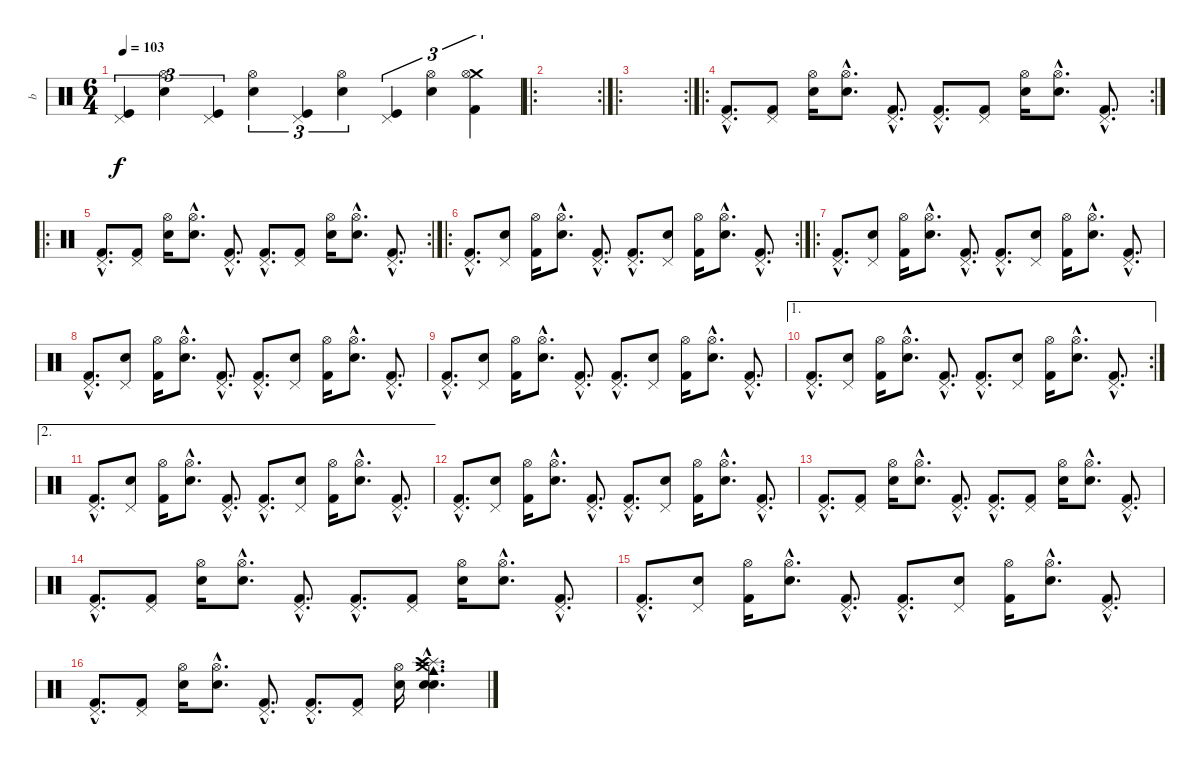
\track ("b" "b") {instrument percussion}
\staff {score}
\articulation defaults
\ts (6 4)
\tempo 103
\clef neutral
\ks c
("Pedal Hi-Hat (hit)" "Kick (hit)").4{tu (3 2) dy f} ("Hi-Hat (open)" "Electric Snare (hit)").4{tu (3 2)} ("Pedal Hi-Hat (hit)" "Kick (hit)").4{tu (3 2)} ("Hi-Hat (open)" "Electric Snare (hit)").4{tu (3 2)} ("Pedal Hi-Hat (hit)" "Kick (hit)").4{tu (3 2)} ("Hi-Hat (open)" "Electric Snare (hit)").4{tu (3 2)} ("Pedal Hi-Hat (hit)" "Kick (hit)").4{tu (3 2)} ("Hi-Hat (open)" "Electric Snare (hit)").4{tu (3 2)} ("Crash medium (hit)" "Hi-Hat (open)" "Kick (hit) 2").4{tu (3 2)} |
\ro
\rc 2
|
\ro
\rc 2
|
\ro
\rc 2
("Pedal Hi-Hat (hit)"{hac} "Kick (hit) 2"{hac}).8{d} ("Pedal Hi-Hat (hit)" "Kick (hit) 2").8 ("Hi-Hat (open)" "Electric Snare (hit)").16 ("Hi-Hat (open)"{hac} "Electric Snare (hit)"{hac}).8{d} ("Pedal Hi-Hat (hit)"{hac} "Kick (hit) 2"{hac}).8{d} ("Pedal Hi-Hat (hit)"{hac} "Kick (hit) 2"{hac}).8{d} ("Pedal Hi-Hat (hit)" "Kick (hit) 2").8 ("Hi-Hat (open)" "Electric Snare (hit)").16 ("Hi-Hat (open)"{hac} "Electric Snare (hit)"{hac}).8{d} ("Pedal Hi-Hat (hit)"{hac} "Kick (hit) 2"{hac}).8{d} |
\ro
\rc 2
("Pedal Hi-Hat (hit)"{hac} "Kick (hit) 2"{hac}).8{d} ("Pedal Hi-Hat (hit)" "Kick (hit) 2").8 ("Hi-Hat (open)" "Electric Snare (hit)").16 ("Hi-Hat (open)"{hac} "Electric Snare (hit)"{hac}).8{d} ("Pedal Hi-Hat (hit)"{hac} "Kick (hit) 2"{hac}).8{d} ("Pedal Hi-Hat (hit)"{hac} "Kick (hit) 2"{hac}).8{d} ("Pedal Hi-Hat (hit)" "Kick (hit) 2").8 ("Hi-Hat (open)" "Electric Snare (hit)").16 ("Hi-Hat (open)"{hac} "Electric Snare (hit)"{hac}).8{d} ("Pedal Hi-Hat (hit)"{hac} "Kick (hit) 2"{hac}).8{d} |
\ro
\rc 2
("Pedal Hi-Hat (hit)"{hac} "Kick (hit) 2"{hac}).8{d} ("Pedal Hi-Hat (hit)" "Electric Snare (hit)").8 ("Hi-Hat (open)" "Kick (hit) 2").16 ("Hi-Hat (open)"{hac} "Electric Snare (hit)"{hac}).8{d} ("Pedal Hi-Hat (hit)"{hac} "Kick (hit) 2"{hac}).8{d} ("Pedal Hi-Hat (hit)"{hac} "Kick (hit) 2"{hac}).8{d} ("Pedal Hi-Hat (hit)" "Electric Snare (hit)").8 ("Hi-Hat (open)" "Kick (hit) 2").16 ("Hi-Hat (open)"{hac} "Electric Snare (hit)"{hac}).8{d} ("Pedal Hi-Hat (hit)"{hac} "Kick (hit) 2"{hac}).8{d} |
\ro
("Pedal Hi-Hat (hit)"{hac} "Kick (hit) 2"{hac}).8{d} ("Pedal Hi-Hat (hit)" "Electric Snare (hit)").8 ("Hi-Hat (open)" "Kick (hit) 2").16 ("Hi-Hat (open)"{hac} "Electric Snare (hit)"{hac}).8{d} ("Pedal Hi-Hat (hit)"{hac} "Kick (hit) 2"{hac}).8{d} ("Pedal Hi-Hat (hit)"{hac} "Kick (hit) 2"{hac}).8{d} ("Pedal Hi-Hat (hit)" "Electric Snare (hit)").8 ("Hi-Hat (open)" "Kick (hit) 2").16 ("Hi-Hat (open)"{hac} "Electric Snare (hit)"{hac}).8{d} ("Pedal Hi-Hat (hit)"{hac} "Kick (hit) 2"{hac}).8{d} |
("Pedal Hi-Hat (hit)"{hac} "Kick (hit) 2"{hac}).8{d} ("Pedal Hi-Hat (hit)" "Electric Snare (hit)").8 ("Hi-Hat (open)" "Kick (hit) 2").16 ("Hi-Hat (open)"{hac} "Electric Snare (hit)"{hac}).8{d} ("Pedal Hi-Hat (hit)"{hac} "Kick (hit) 2"{hac}).8{d} ("Pedal Hi-Hat (hit)"{hac} "Kick (hit) 2"{hac}).8{d} ("Pedal Hi-Hat (hit)" "Electric Snare (hit)").8 ("Hi-Hat (open)" "Kick (hit) 2").16 ("Hi-Hat (open)"{hac} "Electric Snare (hit)"{hac}).8{d} ("Pedal Hi-Hat (hit)"{hac} "Kick (hit) 2"{hac}).8{d} |
("Pedal Hi-Hat (hit)"{hac} "Kick (hit) 2"{hac}).8{d} ("Pedal Hi-Hat (hit)" "Electric Snare (hit)").8 ("Hi-Hat (open)" "Kick (hit) 2").16 ("Hi-Hat (open)"{hac} "Electric Snare (hit)"{hac}).8{d} ("Pedal Hi-Hat (hit)"{hac} "Kick (hit) 2"{hac}).8{d} ("Pedal Hi-Hat (hit)"{hac} "Kick (hit) 2"{hac}).8{d} ("Pedal Hi-Hat (hit)" "Electric Snare (hit)").8 ("Hi-Hat (open)" "Kick (hit) 2").16 ("Hi-Hat (open)"{hac} "Electric Snare (hit)"{hac}).8{d} ("Pedal Hi-Hat (hit)"{hac} "Kick (hit) 2"{hac}).8{d} |
\ae 1
\rc 2
("Pedal Hi-Hat (hit)"{hac} "Kick (hit) 2"{hac}).8{d} ("Pedal Hi-Hat (hit)" "Electric Snare (hit)").8 ("Hi-Hat (open)" "Kick (hit) 2").16 ("Hi-Hat (open)"{hac} "Electric Snare (hit)"{hac}).8{d} ("Pedal Hi-Hat (hit)"{hac} "Kick (hit) 2"{hac}).8{d} ("Pedal Hi-Hat (hit)"{hac} "Kick (hit) 2"{hac}).8{d} ("Pedal Hi-Hat (hit)" "Electric Snare (hit)").8 ("Hi-Hat (open)" "Kick (hit) 2").16 ("Hi-Hat (open)"{hac} "Electric Snare (hit)"{hac}).8{d} ("Pedal Hi-Hat (hit)"{hac} "Kick (hit) 2"{hac}).8{d} |
\ae 2
("Pedal Hi-Hat (hit)"{hac} "Kick (hit) 2"{hac}).8{d} ("Pedal Hi-Hat (hit)" "Electric Snare (hit)").8 ("Hi-Hat (open)" "Kick (hit) 2").16 ("Hi-Hat (open)"{hac} "Electric Snare (hit)"{hac}).8{d} ("Pedal Hi-Hat (hit)"{hac} "Kick (hit) 2"{hac}).8{d} ("Pedal Hi-Hat (hit)"{hac} "Kick (hit) 2"{hac}).8{d} ("Pedal Hi-Hat (hit)" "Electric Snare (hit)").8 ("Hi-Hat (open)" "Kick (hit) 2").16 ("Hi-Hat (open)"{hac} "Electric Snare (hit)"{hac}).8{d} ("Pedal Hi-Hat (hit)"{hac} "Kick (hit) 2"{hac}).8{d} |
("Pedal Hi-Hat (hit)"{hac} "Kick (hit) 2"{hac}).8{d} ("Pedal Hi-Hat (hit)" "Electric Snare (hit)").8 ("Hi-Hat (open)" "Kick (hit) 2").16 ("Hi-Hat (open)"{hac} "Electric Snare (hit)"{hac}).8{d} ("Pedal Hi-Hat (hit)"{hac} "Kick (hit) 2"{hac}).8{d} ("Pedal Hi-Hat (hit)"{hac} "Kick (hit) 2"{hac}).8{d} ("Pedal Hi-Hat (hit)" "Electric Snare (hit)").8 ("Hi-Hat (open)" "Kick (hit) 2").16 ("Hi-Hat (open)"{hac} "Electric Snare (hit)"{hac}).8{d} ("Pedal Hi-Hat (hit)"{hac} "Kick (hit) 2"{hac}).8{d} |
("Pedal Hi-Hat (hit)"{hac} "Kick (hit) 2"{hac}).8{d} ("Pedal Hi-Hat (hit)" "Kick (hit) 2").8 ("Hi-Hat (open)" "Electric Snare (hit)").16 ("Hi-Hat (open)"{hac} "Electric Snare (hit)"{hac}).8{d} ("Pedal Hi-Hat (hit)"{hac} "Kick (hit) 2"{hac}).8{d} ("Pedal Hi-Hat (hit)"{hac} "Kick (hit) 2"{hac}).8{d} ("Pedal Hi-Hat (hit)" "Kick (hit) 2").8 ("Hi-Hat (open)" "Electric Snare (hit)").16 ("Hi-Hat (open)"{hac} "Electric Snare (hit)"{hac}).8{d} ("Pedal Hi-Hat (hit)"{hac} "Kick (hit) 2"{hac}).8{d} |
("Pedal Hi-Hat (hit)"{hac} "Kick (hit) 2"{hac}).8{d} ("Pedal Hi-Hat (hit)" "Kick (hit) 2").8 ("Hi-Hat (open)" "Electric Snare (hit)").16 ("Hi-Hat (open)"{hac} "Electric Snare (hit)"{hac}).8{d} ("Pedal Hi-Hat (hit)"{hac} "Kick (hit) 2"{hac}).8{d} ("Pedal Hi-Hat (hit)"{hac} "Kick (hit) 2"{hac}).8{d} ("Pedal Hi-Hat (hit)" "Kick (hit) 2").8 ("Hi-Hat (open)" "Electric Snare (hit)").16 ("Hi-Hat (open)"{hac} "Electric Snare (hit)"{hac}).8{d} ("Pedal Hi-Hat (hit)"{hac} "Kick (hit) 2"{hac}).8{d} |
("Pedal Hi-Hat (hit)"{hac} "Kick (hit) 2"{hac}).8{d} ("Pedal Hi-Hat (hit)" "Electric Snare (hit)").8 ("Hi-Hat (open)" "Kick (hit) 2").16 ("Hi-Hat (open)"{hac} "Electric Snare (hit)"{hac}).8{d} ("Pedal Hi-Hat (hit)"{hac} "Kick (hit) 2"{hac}).8{d} ("Pedal Hi-Hat (hit)"{hac} "Kick (hit) 2"{hac}).8{d} ("Pedal Hi-Hat (hit)" "Electric Snare (hit)").8 ("Hi-Hat (open)" "Kick (hit) 2").16 ("Hi-Hat (open)"{hac} "Electric Snare (hit)"{hac}).8{d} ("Pedal Hi-Hat (hit)"{hac} "Kick (hit) 2"{hac}).8{d} |
("Pedal Hi-Hat (hit)"{hac} "Kick (hit) 2"{hac}).8{d} ("Pedal Hi-Hat (hit)" "Kick (hit) 2").8 ("Hi-Hat (open)" "Electric Snare (hit)").16 ("Hi-Hat (open)"{hac} "Electric Snare (hit)"{hac}).8{d} ("Pedal Hi-Hat (hit)"{hac} "Kick (hit) 2"{hac}).8{d} ("Pedal Hi-Hat (hit)"{hac} "Kick (hit) 2"{hac}).8{d} ("Pedal Hi-Hat (hit)" "Kick (hit) 2").8 ("Hi-Hat (open)" "Electric Snare (hit)").16 ("Cowbell medium (hit)"{hac} "Splash (hit)"{hac} "Crash high (hit)"{hac} "Crash medium (hit)"{hac} "Electric Snare (hit)"{hac} "Snare (hit) 2"{hac}).4{d}
